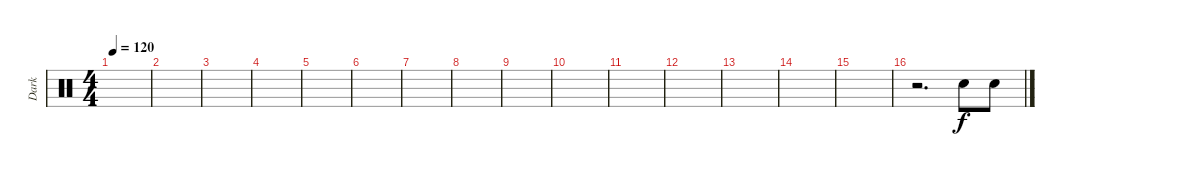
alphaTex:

\track ("Dark" "Dark") {instrument percussion}
\staff {score}
\articulation defaults
\ts (4 4)
\tempo 120
\clef neutral
\ks c
|
|
|
|
|
|
|
|
|
|
|
|
|
|
|
r.2{d} "Snare (hit) 2".8 "Snare (hit) 2".8
